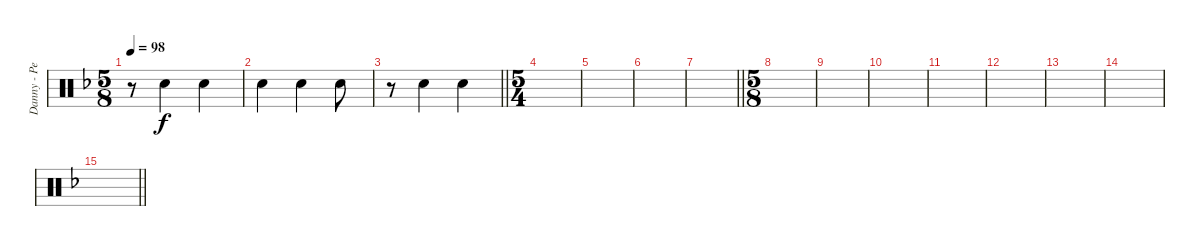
\track ("Danny - Percusion" "Danny - Pe") {instrument percussion}
\staff {score}
\articulation defaults
\ts (5 8)
\tempo 98
\clef neutral
\ks dminor
r.8{dy f} "Hand Clap (hit)".4 "Hand Clap (hit)".4 |
"Hand Clap (hit)".4 "Hand Clap (hit)".4 "Hand Clap (hit)".8 |
\barLineRight lightlight
r.8 "Hand Clap (hit)".4 "Hand Clap (hit)".4 |
\ts (5 4)
|
|
|
\barLineRight lightlight
|
\ts (5 8)
|
|
|
|
|
|
|
\barLineRight lightlight
